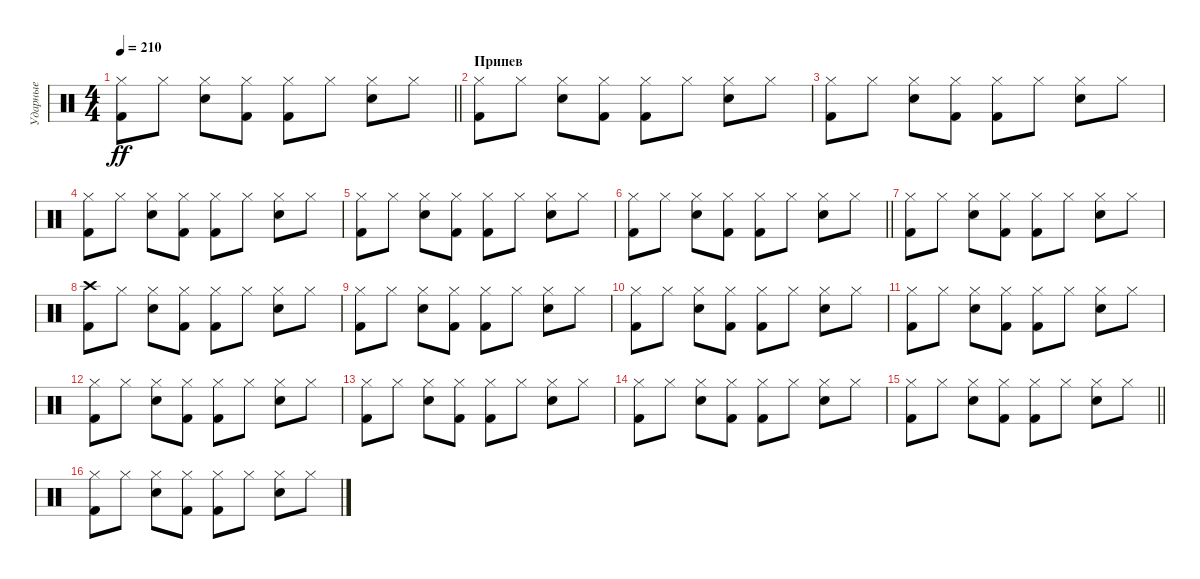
\track ("Ударные" "Ударные") {instrument percussion}
\staff {score}
\articulation defaults
\ts (4 4)
\tempo 210
\clef neutral
\barLineRight lightlight
\ks c
("Hi-Hat (closed)" "Kick (hit) 2").8{dy ff} "Hi-Hat (closed)".8 ("Hi-Hat (closed)" "Snare (hit) 2").8 ("Hi-Hat (closed)" "Kick (hit) 2").8 ("Hi-Hat (closed)" "Kick (hit) 2").8 "Hi-Hat (closed)".8 ("Hi-Hat (closed)" "Snare (hit) 2").8 "Hi-Hat (closed)".8 |
\section ("" "Припев")
("Hi-Hat (closed)" "Kick (hit) 2").8 "Hi-Hat (closed)".8 ("Hi-Hat (closed)" "Snare (hit) 2").8 ("Hi-Hat (closed)" "Kick (hit) 2").8 ("Hi-Hat (closed)" "Kick (hit) 2").8 "Hi-Hat (closed)".8 ("Hi-Hat (closed)" "Snare (hit) 2").8 "Hi-Hat (closed)".8 |
("Hi-Hat (closed)" "Kick (hit) 2").8 "Hi-Hat (closed)".8 ("Hi-Hat (closed)" "Snare (hit) 2").8 ("Hi-Hat (closed)" "Kick (hit) 2").8 ("Hi-Hat (closed)" "Kick (hit) 2").8 "Hi-Hat (closed)".8 ("Hi-Hat (closed)" "Snare (hit) 2").8 "Hi-Hat (closed)".8 |
("Hi-Hat (closed)" "Kick (hit) 2").8 "Hi-Hat (closed)".8 ("Hi-Hat (closed)" "Snare (hit) 2").8 ("Hi-Hat (closed)" "Kick (hit) 2").8 ("Hi-Hat (closed)" "Kick (hit) 2").8 "Hi-Hat (closed)".8 ("Hi-Hat (closed)" "Snare (hit) 2").8 "Hi-Hat (closed)".8 |
("Hi-Hat (closed)" "Kick (hit) 2").8 "Hi-Hat (closed)".8 ("Hi-Hat (closed)" "Snare (hit) 2").8 ("Hi-Hat (closed)" "Kick (hit) 2").8 ("Hi-Hat (closed)" "Kick (hit) 2").8 "Hi-Hat (closed)".8 ("Hi-Hat (closed)" "Snare (hit) 2").8 "Hi-Hat (closed)".8 |
\barLineRight lightlight
("Hi-Hat (closed)" "Kick (hit) 2").8 "Hi-Hat (closed)".8 ("Hi-Hat (closed)" "Snare (hit) 2").8 ("Hi-Hat (closed)" "Kick (hit) 2").8 ("Hi-Hat (closed)" "Kick (hit) 2").8 "Hi-Hat (closed)".8 ("Hi-Hat (closed)" "Snare (hit) 2").8 "Hi-Hat (closed)".8 |
("Hi-Hat (closed)" "Kick (hit) 2").8 "Hi-Hat (closed)".8 ("Hi-Hat (closed)" "Snare (hit) 2").8 ("Hi-Hat (closed)" "Kick (hit) 2").8 ("Hi-Hat (closed)" "Kick (hit) 2").8 "Hi-Hat (closed)".8 ("Hi-Hat (closed)" "Snare (hit) 2").8 "Hi-Hat (closed)".8 |
("Crash high (hit)" "Kick (hit) 2").8 "Hi-Hat (closed)".8 ("Hi-Hat (closed)" "Snare (hit) 2").8 ("Hi-Hat (closed)" "Kick (hit) 2").8 ("Hi-Hat (closed)" "Kick (hit) 2").8 "Hi-Hat (closed)".8 ("Hi-Hat (closed)" "Snare (hit) 2").8 "Hi-Hat (closed)".8 |
("Hi-Hat (closed)" "Kick (hit) 2").8 "Hi-Hat (closed)".8 ("Hi-Hat (closed)" "Snare (hit) 2").8 ("Hi-Hat (closed)" "Kick (hit) 2").8 ("Hi-Hat (closed)" "Kick (hit) 2").8 "Hi-Hat (closed)".8 ("Hi-Hat (closed)" "Snare (hit) 2").8 "Hi-Hat (closed)".8 |
("Hi-Hat (closed)" "Kick (hit) 2").8 "Hi-Hat (closed)".8 ("Hi-Hat (closed)" "Snare (hit) 2").8 ("Hi-Hat (closed)" "Kick (hit) 2").8 ("Hi-Hat (closed)" "Kick (hit) 2").8 "Hi-Hat (closed)".8 ("Hi-Hat (closed)" "Snare (hit) 2").8 "Hi-Hat (closed)".8 |
("Hi-Hat (closed)" "Kick (hit) 2").8 "Hi-Hat (closed)".8 ("Hi-Hat (closed)" "Snare (hit) 2").8 ("Hi-Hat (closed)" "Kick (hit) 2").8 ("Hi-Hat (closed)" "Kick (hit) 2").8 "Hi-Hat (closed)".8 ("Hi-Hat (closed)" "Snare (hit) 2").8 "Hi-Hat (closed)".8 |
("Hi-Hat (closed)" "Kick (hit) 2").8 "Hi-Hat (closed)".8 ("Hi-Hat (closed)" "Snare (hit) 2").8 ("Hi-Hat (closed)" "Kick (hit) 2").8 ("Hi-Hat (closed)" "Kick (hit) 2").8 "Hi-Hat (closed)".8 ("Hi-Hat (closed)" "Snare (hit) 2").8 "Hi-Hat (closed)".8 |
("Hi-Hat (closed)" "Kick (hit) 2").8 "Hi-Hat (closed)".8 ("Hi-Hat (closed)" "Snare (hit) 2").8 ("Hi-Hat (closed)" "Kick (hit) 2").8 ("Hi-Hat (closed)" "Kick (hit) 2").8 "Hi-Hat (closed)".8 ("Hi-Hat (closed)" "Snare (hit) 2").8 "Hi-Hat (closed)".8 |
("Hi-Hat (closed)" "Kick (hit) 2").8 "Hi-Hat (closed)".8 ("Hi-Hat (closed)" "Snare (hit) 2").8 ("Hi-Hat (closed)" "Kick (hit) 2").8 ("Hi-Hat (closed)" "Kick (hit) 2").8 "Hi-Hat (closed)".8 ("Hi-Hat (closed)" "Snare (hit) 2").8 "Hi-Hat (closed)".8 |
\barLineRight lightlight
("Hi-Hat (closed)" "Kick (hit) 2").8 "Hi-Hat (closed)".8 ("Hi-Hat (closed)" "Snare (hit) 2").8 ("Hi-Hat (closed)" "Kick (hit) 2").8 ("Hi-Hat (closed)" "Kick (hit) 2").8 "Hi-Hat (closed)".8 ("Hi-Hat (closed)" "Snare (hit) 2").8 "Hi-Hat (closed)".8 |
("Hi-Hat (closed)" "Kick (hit) 2").8 "Hi-Hat (closed)".8 ("Hi-Hat (closed)" "Snare (hit) 2").8 ("Hi-Hat (closed)" "Kick (hit) 2").8 ("Hi-Hat (closed)" "Kick (hit) 2").8 "Hi-Hat (closed)".8 ("Hi-Hat (closed)" "Snare (hit) 2").8 "Hi-Hat (closed)".8
